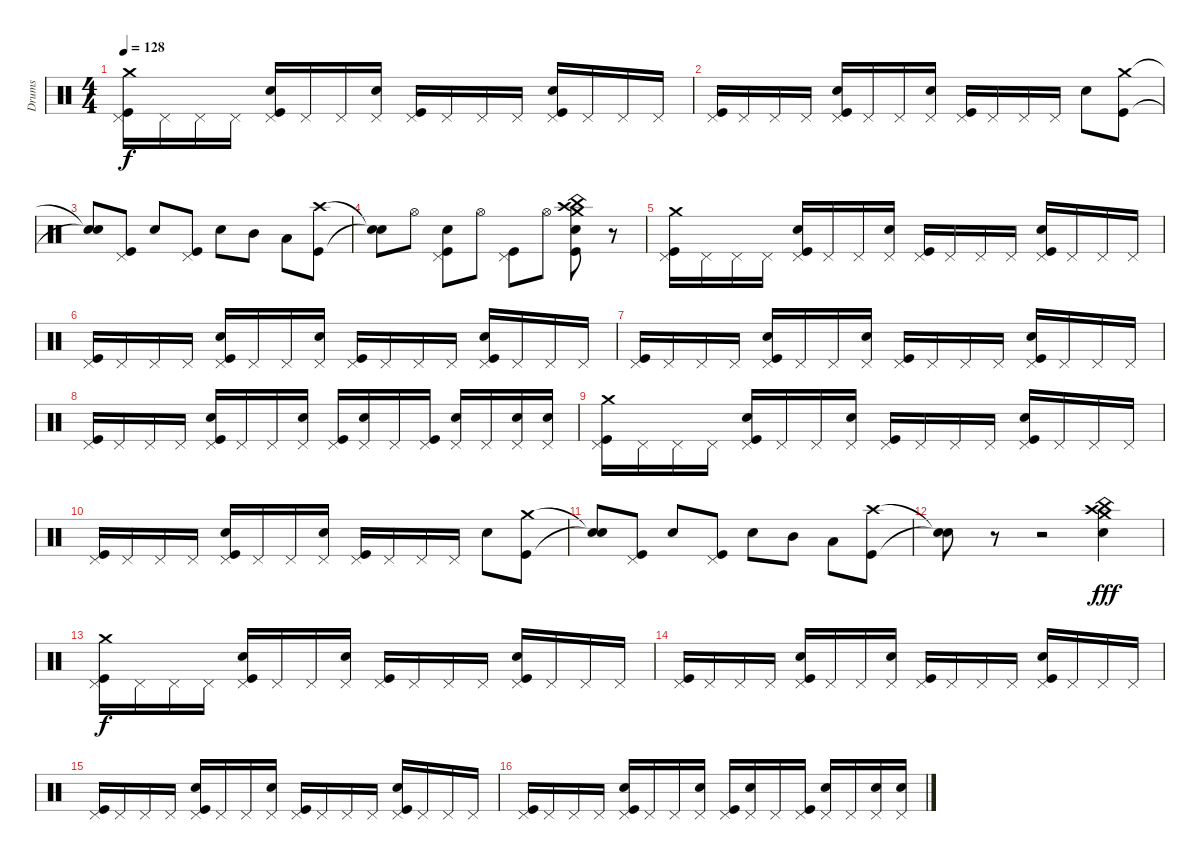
\track ("Drums" "Drums") {instrument percussion}
\staff {score}
\articulation defaults
\ts (4 4)
\tempo 128
\clef neutral
\ks c
("Kick (hit)" "Pedal Hi-Hat (hit)" "Crash medium (hit)").16{dy f} "Pedal Hi-Hat (hit)".16 "Pedal Hi-Hat (hit)".16 "Pedal Hi-Hat (hit)".16 ("Kick (hit)" "Pedal Hi-Hat (hit)" "Snare (hit) 2").16 "Pedal Hi-Hat (hit)".16 "Pedal Hi-Hat (hit)".16 ("Pedal Hi-Hat (hit)" "Snare (hit) 2").16 ("Kick (hit)" "Pedal Hi-Hat (hit)").16 "Pedal Hi-Hat (hit)".16 "Pedal Hi-Hat (hit)".16 "Pedal Hi-Hat (hit)".16 ("Kick (hit)" "Pedal Hi-Hat (hit)" "Snare (hit) 2").16 "Pedal Hi-Hat (hit)".16 "Pedal Hi-Hat (hit)".16 "Pedal Hi-Hat (hit)".16 |
("Kick (hit)" "Pedal Hi-Hat (hit)").16 "Pedal Hi-Hat (hit)".16 "Pedal Hi-Hat (hit)".16 "Pedal Hi-Hat (hit)".16 ("Kick (hit)" "Pedal Hi-Hat (hit)" "Snare (hit) 2").16 "Pedal Hi-Hat (hit)".16 "Pedal Hi-Hat (hit)".16 ("Pedal Hi-Hat (hit)" "Snare (hit) 2").16 ("Kick (hit)" "Pedal Hi-Hat (hit)").16 "Pedal Hi-Hat (hit)".16 "Pedal Hi-Hat (hit)".16 "Pedal Hi-Hat (hit)".16 "Snare (hit) 2".8 ("Kick (hit)" "Crash medium (hit)").8 |
("Snare (hit)"{t} "Snare (hit)"{t}).8 ("Kick (hit)" "Pedal Hi-Hat (hit)").8 "Snare (hit) 2".8 ("Kick (hit)" "Pedal Hi-Hat (hit)").8 "Snare (hit) 2".8 "Mid Tom (hit)".8 "Low Tom (hit)".8 ("Kick (hit)" "Crash high (hit)").8 |
("Snare (hit)"{t} "Snare (hit)"{t}).8 "Hi-Hat (open)".8 ("Kick (hit)" "Pedal Hi-Hat (hit)" "Snare (hit) 2").8 "Hi-Hat (open)".8 ("Kick (hit)" "Pedal Hi-Hat (hit)").8 "Hi-Hat (open)".8 ("Kick (hit)" "Crash high (hit)" "Snare (hit) 2" "Crash medium (hit)" "China (hit)").8 r.8 |
("Kick (hit)" "Pedal Hi-Hat (hit)" "Crash medium (hit)").16 "Pedal Hi-Hat (hit)".16 "Pedal Hi-Hat (hit)".16 "Pedal Hi-Hat (hit)".16 ("Kick (hit)" "Pedal Hi-Hat (hit)" "Snare (hit) 2").16 "Pedal Hi-Hat (hit)".16 "Pedal Hi-Hat (hit)".16 ("Pedal Hi-Hat (hit)" "Snare (hit) 2").16 ("Kick (hit)" "Pedal Hi-Hat (hit)").16 "Pedal Hi-Hat (hit)".16 "Pedal Hi-Hat (hit)".16 "Pedal Hi-Hat (hit)".16 ("Kick (hit)" "Pedal Hi-Hat (hit)" "Snare (hit) 2").16 "Pedal Hi-Hat (hit)".16 "Pedal Hi-Hat (hit)".16 "Pedal Hi-Hat (hit)".16 |
("Kick (hit)" "Pedal Hi-Hat (hit)").16 "Pedal Hi-Hat (hit)".16 "Pedal Hi-Hat (hit)".16 "Pedal Hi-Hat (hit)".16 ("Kick (hit)" "Pedal Hi-Hat (hit)" "Snare (hit) 2").16 "Pedal Hi-Hat (hit)".16 "Pedal Hi-Hat (hit)".16 ("Pedal Hi-Hat (hit)" "Snare (hit) 2").16 ("Kick (hit)" "Pedal Hi-Hat (hit)").16 "Pedal Hi-Hat (hit)".16 "Pedal Hi-Hat (hit)".16 "Pedal Hi-Hat (hit)".16 ("Kick (hit)" "Pedal Hi-Hat (hit)" "Snare (hit) 2").16 "Pedal Hi-Hat (hit)".16 "Pedal Hi-Hat (hit)".16 "Pedal Hi-Hat (hit)".16 |
("Kick (hit)" "Pedal Hi-Hat (hit)").16 "Pedal Hi-Hat (hit)".16 "Pedal Hi-Hat (hit)".16 "Pedal Hi-Hat (hit)".16 ("Kick (hit)" "Pedal Hi-Hat (hit)" "Snare (hit) 2").16 "Pedal Hi-Hat (hit)".16 "Pedal Hi-Hat (hit)".16 ("Pedal Hi-Hat (hit)" "Snare (hit) 2").16 ("Kick (hit)" "Pedal Hi-Hat (hit)").16 "Pedal Hi-Hat (hit)".16 "Pedal Hi-Hat (hit)".16 "Pedal Hi-Hat (hit)".16 ("Kick (hit)" "Pedal Hi-Hat (hit)" "Snare (hit) 2").16 "Pedal Hi-Hat (hit)".16 "Pedal Hi-Hat (hit)".16 "Pedal Hi-Hat (hit)".16 |
("Kick (hit)" "Pedal Hi-Hat (hit)").16 "Pedal Hi-Hat (hit)".16 "Pedal Hi-Hat (hit)".16 "Pedal Hi-Hat (hit)".16 ("Kick (hit)" "Pedal Hi-Hat (hit)" "Snare (hit) 2").16 "Pedal Hi-Hat (hit)".16 "Pedal Hi-Hat (hit)".16 ("Pedal Hi-Hat (hit)" "Snare (hit) 2").16 ("Kick (hit)" "Pedal Hi-Hat (hit)").16 ("Pedal Hi-Hat (hit)" "Snare (hit) 2").16 "Pedal Hi-Hat (hit)".16 ("Kick (hit)" "Pedal Hi-Hat (hit)").16 ("Pedal Hi-Hat (hit)" "Snare (hit) 2").16 "Pedal Hi-Hat (hit)".16 ("Pedal Hi-Hat (hit)" "Snare (hit) 2").16 ("Pedal Hi-Hat (hit)" "Snare (hit) 2").16 |
("Kick (hit)" "Pedal Hi-Hat (hit)" "Crash medium (hit)").16 "Pedal Hi-Hat (hit)".16 "Pedal Hi-Hat (hit)".16 "Pedal Hi-Hat (hit)".16 ("Kick (hit)" "Pedal Hi-Hat (hit)" "Snare (hit) 2").16 "Pedal Hi-Hat (hit)".16 "Pedal Hi-Hat (hit)".16 ("Pedal Hi-Hat (hit)" "Snare (hit) 2").16 ("Kick (hit)" "Pedal Hi-Hat (hit)").16 "Pedal Hi-Hat (hit)".16 "Pedal Hi-Hat (hit)".16 "Pedal Hi-Hat (hit)".16 ("Kick (hit)" "Pedal Hi-Hat (hit)" "Snare (hit) 2").16 "Pedal Hi-Hat (hit)".16 "Pedal Hi-Hat (hit)".16 "Pedal Hi-Hat (hit)".16 |
("Kick (hit)" "Pedal Hi-Hat (hit)").16 "Pedal Hi-Hat (hit)".16 "Pedal Hi-Hat (hit)".16 "Pedal Hi-Hat (hit)".16 ("Kick (hit)" "Pedal Hi-Hat (hit)" "Snare (hit) 2").16 "Pedal Hi-Hat (hit)".16 "Pedal Hi-Hat (hit)".16 ("Pedal Hi-Hat (hit)" "Snare (hit) 2").16 ("Kick (hit)" "Pedal Hi-Hat (hit)").16 "Pedal Hi-Hat (hit)".16 "Pedal Hi-Hat (hit)".16 "Pedal Hi-Hat (hit)".16 "Snare (hit) 2".8 ("Kick (hit)" "Crash medium (hit)").8 |
("Snare (hit)"{t} "Snare (hit)"{t}).8 ("Kick (hit)" "Pedal Hi-Hat (hit)").8 "Snare (hit) 2".8 ("Kick (hit)" "Pedal Hi-Hat (hit)").8 "Snare (hit) 2".8 "Mid Tom (hit)".8 "Low Tom (hit)".8 ("Kick (hit)" "Crash high (hit)").8 |
("Snare (hit)"{t} "Snare (hit)"{t}).8 r.8 r.2 ("Crash high (hit)" "Snare (hit) 2" "Crash medium (hit)" "China (hit)").4{dy fff} |
("Kick (hit)" "Pedal Hi-Hat (hit)" "Crash medium (hit)").16{dy f} "Pedal Hi-Hat (hit)".16 "Pedal Hi-Hat (hit)".16 "Pedal Hi-Hat (hit)".16 ("Kick (hit)" "Pedal Hi-Hat (hit)" "Snare (hit) 2").16 "Pedal Hi-Hat (hit)".16 "Pedal Hi-Hat (hit)".16 ("Pedal Hi-Hat (hit)" "Snare (hit) 2").16 ("Kick (hit)" "Pedal Hi-Hat (hit)").16 "Pedal Hi-Hat (hit)".16 "Pedal Hi-Hat (hit)".16 "Pedal Hi-Hat (hit)".16 ("Kick (hit)" "Pedal Hi-Hat (hit)" "Snare (hit) 2").16 "Pedal Hi-Hat (hit)".16 "Pedal Hi-Hat (hit)".16 "Pedal Hi-Hat (hit)".16 |
("Kick (hit)" "Pedal Hi-Hat (hit)").16 "Pedal Hi-Hat (hit)".16 "Pedal Hi-Hat (hit)".16 "Pedal Hi-Hat (hit)".16 ("Kick (hit)" "Pedal Hi-Hat (hit)" "Snare (hit) 2").16 "Pedal Hi-Hat (hit)".16 "Pedal Hi-Hat (hit)".16 ("Pedal Hi-Hat (hit)" "Snare (hit) 2").16 ("Kick (hit)" "Pedal Hi-Hat (hit)").16 "Pedal Hi-Hat (hit)".16 "Pedal Hi-Hat (hit)".16 "Pedal Hi-Hat (hit)".16 ("Kick (hit)" "Pedal Hi-Hat (hit)" "Snare (hit) 2").16 "Pedal Hi-Hat (hit)".16 "Pedal Hi-Hat (hit)".16 "Pedal Hi-Hat (hit)".16 |
("Kick (hit)" "Pedal Hi-Hat (hit)").16 "Pedal Hi-Hat (hit)".16 "Pedal Hi-Hat (hit)".16 "Pedal Hi-Hat (hit)".16 ("Kick (hit)" "Pedal Hi-Hat (hit)" "Snare (hit) 2").16 "Pedal Hi-Hat (hit)".16 "Pedal Hi-Hat (hit)".16 ("Pedal Hi-Hat (hit)" "Snare (hit) 2").16 ("Kick (hit)" "Pedal Hi-Hat (hit)").16 "Pedal Hi-Hat (hit)".16 "Pedal Hi-Hat (hit)".16 "Pedal Hi-Hat (hit)".16 ("Kick (hit)" "Pedal Hi-Hat (hit)" "Snare (hit) 2").16 "Pedal Hi-Hat (hit)".16 "Pedal Hi-Hat (hit)".16 "Pedal Hi-Hat (hit)".16 |
("Kick (hit)" "Pedal Hi-Hat (hit)").16 "Pedal Hi-Hat (hit)".16 "Pedal Hi-Hat (hit)".16 "Pedal Hi-Hat (hit)".16 ("Kick (hit)" "Pedal Hi-Hat (hit)" "Snare (hit) 2").16 "Pedal Hi-Hat (hit)".16 "Pedal Hi-Hat (hit)".16 ("Pedal Hi-Hat (hit)" "Snare (hit) 2").16 ("Kick (hit)" "Pedal Hi-Hat (hit)").16 ("Pedal Hi-Hat (hit)" "Snare (hit) 2").16 "Pedal Hi-Hat (hit)".16 ("Kick (hit)" "Pedal Hi-Hat (hit)").16 ("Pedal Hi-Hat (hit)" "Snare (hit) 2").16 "Pedal Hi-Hat (hit)".16 ("Pedal Hi-Hat (hit)" "Snare (hit) 2").16 ("Pedal Hi-Hat (hit)" "Snare (hit) 2").16
